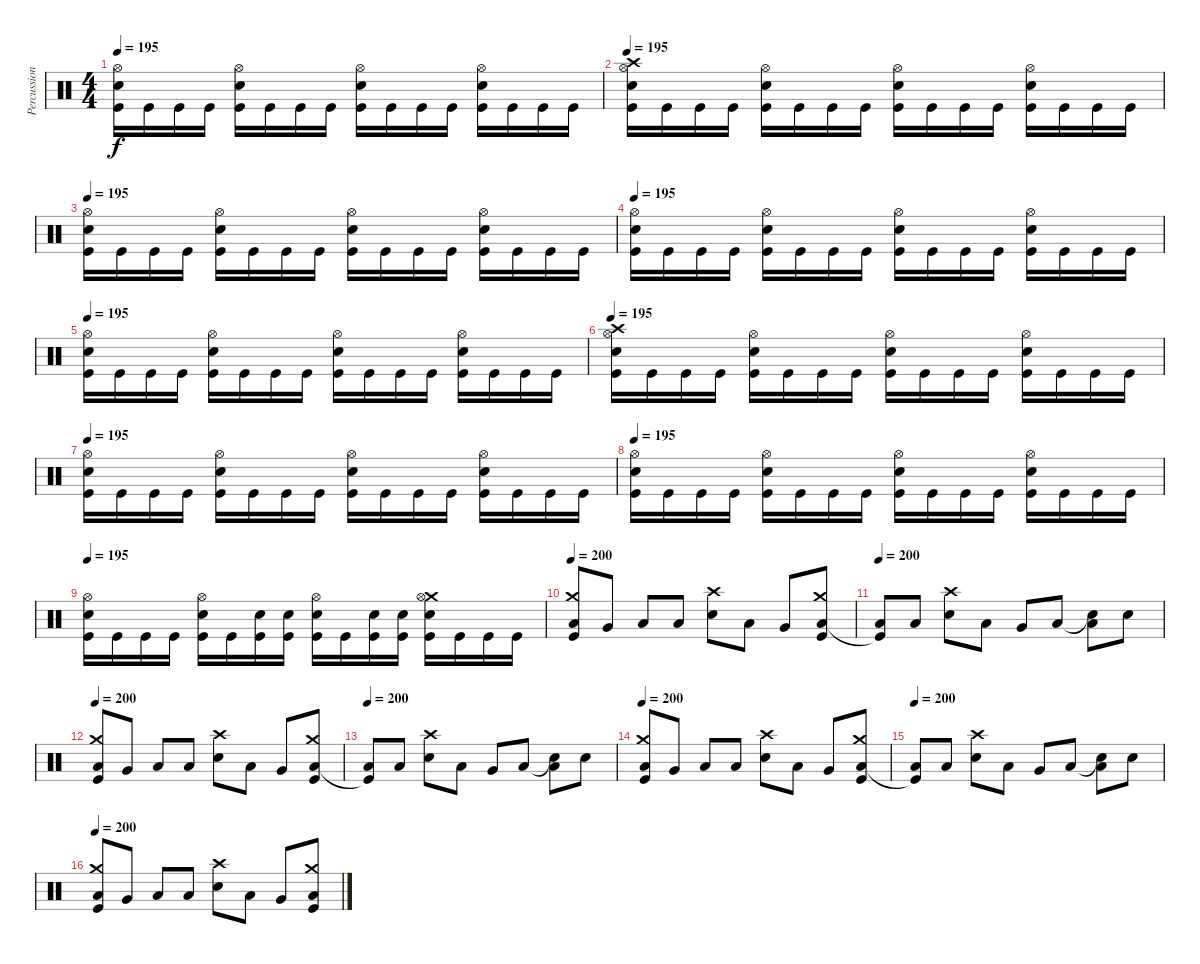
\track ("Percussion" "Percussion") {instrument percussion}
\staff {score}
\articulation defaults
\ts (4 4)
\tempo 195
\clef neutral
\ks c
("Hi-Hat (open)" "Electric Snare (hit)" "Kick (hit)").16{dy f} "Kick (hit)".16 "Kick (hit)".16 "Kick (hit)".16 ("Hi-Hat (open)" "Electric Snare (hit)" "Kick (hit)").16 "Kick (hit)".16 "Kick (hit)".16 "Kick (hit)".16 ("Hi-Hat (open)" "Electric Snare (hit)" "Kick (hit)").16 "Kick (hit)".16 "Kick (hit)".16 "Kick (hit)".16 ("Hi-Hat (open)" "Electric Snare (hit)" "Kick (hit)").16 "Kick (hit)".16 "Kick (hit)".16 "Kick (hit)".16 |
\tempo 195
("Crash high (hit)" "Hi-Hat (open)" "Electric Snare (hit)" "Kick (hit)").16 "Kick (hit)".16 "Kick (hit)".16 "Kick (hit)".16 ("Hi-Hat (open)" "Electric Snare (hit)" "Kick (hit)").16 "Kick (hit)".16 "Kick (hit)".16 "Kick (hit)".16 ("Hi-Hat (open)" "Electric Snare (hit)" "Kick (hit)").16 "Kick (hit)".16 "Kick (hit)".16 "Kick (hit)".16 ("Hi-Hat (open)" "Electric Snare (hit)" "Kick (hit)").16 "Kick (hit)".16 "Kick (hit)".16 "Kick (hit)".16 |
\tempo 195
("Hi-Hat (open)" "Electric Snare (hit)" "Kick (hit)").16 "Kick (hit)".16 "Kick (hit)".16 "Kick (hit)".16 ("Hi-Hat (open)" "Electric Snare (hit)" "Kick (hit)").16 "Kick (hit)".16 "Kick (hit)".16 "Kick (hit)".16 ("Hi-Hat (open)" "Electric Snare (hit)" "Kick (hit)").16 "Kick (hit)".16 "Kick (hit)".16 "Kick (hit)".16 ("Hi-Hat (open)" "Electric Snare (hit)" "Kick (hit)").16 "Kick (hit)".16 "Kick (hit)".16 "Kick (hit)".16 |
\tempo 195
("Hi-Hat (open)" "Electric Snare (hit)" "Kick (hit)").16 "Kick (hit)".16 "Kick (hit)".16 "Kick (hit)".16 ("Hi-Hat (open)" "Electric Snare (hit)" "Kick (hit)").16 "Kick (hit)".16 "Kick (hit)".16 "Kick (hit)".16 ("Hi-Hat (open)" "Electric Snare (hit)" "Kick (hit)").16 "Kick (hit)".16 "Kick (hit)".16 "Kick (hit)".16 ("Hi-Hat (open)" "Electric Snare (hit)" "Kick (hit)").16 "Kick (hit)".16 "Kick (hit)".16 "Kick (hit)".16 |
\tempo 195
("Hi-Hat (open)" "Electric Snare (hit)" "Kick (hit)").16 "Kick (hit)".16 "Kick (hit)".16 "Kick (hit)".16 ("Hi-Hat (open)" "Electric Snare (hit)" "Kick (hit)").16 "Kick (hit)".16 "Kick (hit)".16 "Kick (hit)".16 ("Hi-Hat (open)" "Electric Snare (hit)" "Kick (hit)").16 "Kick (hit)".16 "Kick (hit)".16 "Kick (hit)".16 ("Hi-Hat (open)" "Electric Snare (hit)" "Kick (hit)").16 "Kick (hit)".16 "Kick (hit)".16 "Kick (hit)".16 |
\tempo 195
("Crash high (hit)" "Hi-Hat (open)" "Electric Snare (hit)" "Kick (hit)").16 "Kick (hit)".16 "Kick (hit)".16 "Kick (hit)".16 ("Hi-Hat (open)" "Electric Snare (hit)" "Kick (hit)").16 "Kick (hit)".16 "Kick (hit)".16 "Kick (hit)".16 ("Hi-Hat (open)" "Electric Snare (hit)" "Kick (hit)").16 "Kick (hit)".16 "Kick (hit)".16 "Kick (hit)".16 ("Hi-Hat (open)" "Electric Snare (hit)" "Kick (hit)").16 "Kick (hit)".16 "Kick (hit)".16 "Kick (hit)".16 |
\tempo 195
("Hi-Hat (open)" "Electric Snare (hit)" "Kick (hit)").16 "Kick (hit)".16 "Kick (hit)".16 "Kick (hit)".16 ("Hi-Hat (open)" "Electric Snare (hit)" "Kick (hit)").16 "Kick (hit)".16 "Kick (hit)".16 "Kick (hit)".16 ("Hi-Hat (open)" "Electric Snare (hit)" "Kick (hit)").16 "Kick (hit)".16 "Kick (hit)".16 "Kick (hit)".16 ("Hi-Hat (open)" "Electric Snare (hit)" "Kick (hit)").16 "Kick (hit)".16 "Kick (hit)".16 "Kick (hit)".16 |
\tempo 195
("Hi-Hat (open)" "Electric Snare (hit)" "Kick (hit)").16 "Kick (hit)".16 "Kick (hit)".16 "Kick (hit)".16 ("Hi-Hat (open)" "Electric Snare (hit)" "Kick (hit)").16 "Kick (hit)".16 "Kick (hit)".16 "Kick (hit)".16 ("Hi-Hat (open)" "Electric Snare (hit)" "Kick (hit)").16 "Kick (hit)".16 "Kick (hit)".16 "Kick (hit)".16 ("Hi-Hat (open)" "Electric Snare (hit)" "Kick (hit)").16 "Kick (hit)".16 "Kick (hit)".16 "Kick (hit)".16 |
\tempo 195
("Hi-Hat (open)" "Electric Snare (hit)" "Kick (hit)").16 "Kick (hit)".16 "Kick (hit)".16 "Kick (hit)".16 ("Hi-Hat (open)" "Electric Snare (hit)" "Kick (hit)").16 "Kick (hit)".16 ("Electric Snare (hit)" "Kick (hit)").16 ("Electric Snare (hit)" "Kick (hit)").16 ("Hi-Hat (open)" "Electric Snare (hit)" "Kick (hit)").16 "Kick (hit)".16 ("Electric Snare (hit)" "Kick (hit)").16 ("Electric Snare (hit)" "Kick (hit)").16 ("Crash medium (hit)" "Hi-Hat (open)" "Electric Snare (hit)" "Kick (hit)").16 "Kick (hit)".16 "Kick (hit)".16 "Kick (hit)".16 |
\tempo 200
("Crash medium (hit)" "Low Tom (hit)" "Kick (hit)").8 "Very Low Tom (hit)".8 "Low Floor Tom (hit)".8 "Low Floor Tom (hit)".8 ("Crash high (hit)" "Electric Snare (hit)").8 "Low Tom (hit)".8 "Very Low Tom (hit)".8 ("Crash medium (hit)" "Low Floor Tom (hit)" "Kick (hit)").8 |
\tempo 200
("Low Floor Tom (hit)" "Kick (hit)"{t}).8 "Low Floor Tom (hit)".8 ("Electric Snare (hit)" "Crash high (hit)").8 "Low Tom (hit)".8 "Very Low Tom (hit)".8 "Low Floor Tom (hit)".8 ("Snare (hit)"{t} "Low Floor Tom (hit)").8 "Electric Snare (hit)".8 |
\tempo 200
("Crash medium (hit)" "Low Tom (hit)" "Kick (hit)").8 "Very Low Tom (hit)".8 "Low Floor Tom (hit)".8 "Low Floor Tom (hit)".8 ("Crash high (hit)" "Electric Snare (hit)").8 "Low Tom (hit)".8 "Very Low Tom (hit)".8 ("Crash medium (hit)" "Low Floor Tom (hit)" "Kick (hit)").8 |
\tempo 200
("Low Floor Tom (hit)" "Kick (hit)"{t}).8 "Low Floor Tom (hit)".8 ("Electric Snare (hit)" "Crash high (hit)").8 "Low Tom (hit)".8 "Very Low Tom (hit)".8 "Low Floor Tom (hit)".8 ("Snare (hit)"{t} "Low Floor Tom (hit)").8 "Electric Snare (hit)".8 |
\tempo 200
("Crash medium (hit)" "Low Tom (hit)" "Kick (hit)").8 "Very Low Tom (hit)".8 "Low Floor Tom (hit)".8 "Low Floor Tom (hit)".8 ("Crash high (hit)" "Electric Snare (hit)").8 "Low Tom (hit)".8 "Very Low Tom (hit)".8 ("Crash medium (hit)" "Low Floor Tom (hit)" "Kick (hit)").8 |
\tempo 200
("Low Floor Tom (hit)" "Kick (hit)"{t}).8 "Low Floor Tom (hit)".8 ("Electric Snare (hit)" "Crash high (hit)").8 "Low Tom (hit)".8 "Very Low Tom (hit)".8 "Low Floor Tom (hit)".8 ("Snare (hit)"{t} "Low Floor Tom (hit)").8 "Electric Snare (hit)".8 |
\tempo 200
("Crash medium (hit)" "Low Tom (hit)" "Kick (hit)").8 "Very Low Tom (hit)".8 "Low Floor Tom (hit)".8 "Low Floor Tom (hit)".8 ("Crash high (hit)" "Electric Snare (hit)").8 "Low Tom (hit)".8 "Very Low Tom (hit)".8 ("Crash medium (hit)" "Low Floor Tom (hit)" "Kick (hit)").8
